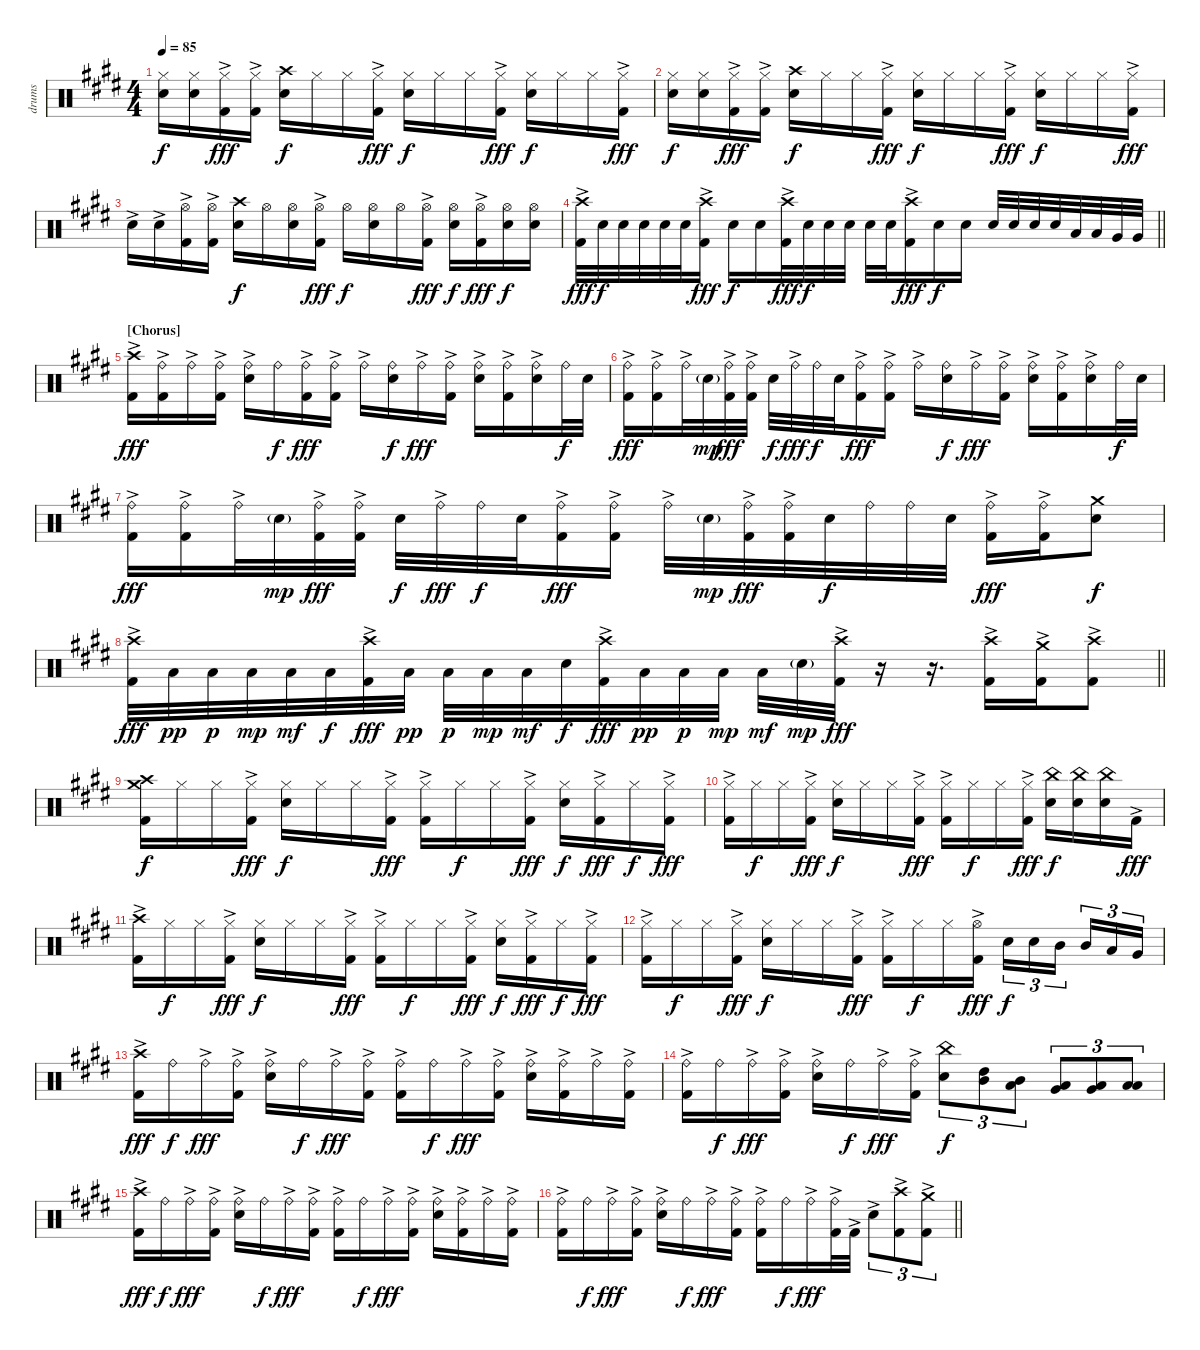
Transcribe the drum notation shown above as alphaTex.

\track ("drums" "drums") {instrument percussion}
\staff {score}
\articulation defaults
\ts (4 4)
\tempo 85
\clef neutral
\ks e
("Hi-Hat (closed)" "Snare (hit) 2").16{dy f} ("Hi-Hat (closed)" "Snare (hit) 2").16 ("Hi-Hat (closed)" "Kick (hit) 2"{ac}).16{dy fff} ("Hi-Hat (closed)" "Kick (hit) 2"{ac}).16 ("Crash high (hit)" "Snare (hit) 2").16{dy f} "Hi-Hat (closed)".16 "Hi-Hat (closed)".16 ("Hi-Hat (closed)" "Kick (hit) 2"{ac}).16{dy fff} ("Hi-Hat (closed)" "Snare (hit) 2").16{dy f} "Hi-Hat (closed)".16 "Hi-Hat (closed)".16 ("Hi-Hat (closed)" "Kick (hit) 2"{ac}).16{dy fff} ("Hi-Hat (closed)" "Snare (hit) 2").16{dy f} "Hi-Hat (closed)".16 "Hi-Hat (closed)".16 ("Hi-Hat (closed)" "Kick (hit) 2"{ac}).16{dy fff} |
("Hi-Hat (closed)" "Snare (hit) 2").16{dy f} ("Hi-Hat (closed)" "Snare (hit) 2").16 ("Hi-Hat (closed)" "Kick (hit) 2"{ac}).16{dy fff} ("Hi-Hat (closed)" "Kick (hit) 2"{ac}).16 ("Crash high (hit)" "Snare (hit) 2").16{dy f} "Hi-Hat (closed)".16 "Hi-Hat (closed)".16 ("Hi-Hat (closed)" "Kick (hit) 2"{ac}).16{dy fff} ("Hi-Hat (closed)" "Snare (hit) 2").16{dy f} "Hi-Hat (closed)".16 "Hi-Hat (closed)".16 ("Hi-Hat (closed)" "Kick (hit) 2"{ac}).16{dy fff} ("Hi-Hat (closed)" "Snare (hit) 2").16{dy f} "Hi-Hat (closed)".16 "Hi-Hat (closed)".16 ("Hi-Hat (closed)" "Kick (hit) 2"{ac}).16{dy fff} |
"Snare (hit) 2"{ac}.16 "Snare (hit) 2"{ac}.16 ("Hi-Hat (open)" "Kick (hit) 2"{ac}).16 ("Hi-Hat (open)" "Kick (hit) 2"{ac}).16 ("Crash high (hit)" "Snare (hit) 2").16{dy f} "Hi-Hat (open)".16 ("Hi-Hat (open)" "Snare (hit) 2").16 ("Hi-Hat (open)" "Kick (hit) 2"{ac}).16{dy fff} "Hi-Hat (open)".16{dy f} ("Hi-Hat (open)" "Snare (hit) 2").16 "Hi-Hat (open)".16 ("Hi-Hat (open)" "Kick (hit) 2"{ac}).16{dy fff} ("Hi-Hat (open)" "Snare (hit) 2").16{dy f} ("Hi-Hat (open)" "Kick (hit) 2"{ac}).16{dy fff} ("Hi-Hat (open)" "Snare (hit) 2").16{dy f} ("Hi-Hat (open)" "Snare (hit) 2").16 |
\barLineRight lightlight
("Crash high (hit)" "Kick (hit) 2"{ac}).32{dy fff} "Snare (hit) 2".32{dy f} "Snare (hit) 2".32 "Snare (hit) 2".32 "Snare (hit) 2".32 "Snare (hit) 2".32 ("Crash high (hit)" "Kick (hit) 2"{ac}).16{dy fff} "Snare (hit) 2".16{dy f} "Snare (hit) 2".16 ("Crash high (hit)" "Kick (hit) 2"{ac}).32{dy fff} "Snare (hit) 2".32{dy f} "Snare (hit) 2".32 "Snare (hit) 2".32 "Snare (hit) 2".32 "Snare (hit) 2".32 ("Crash high (hit)" "Kick (hit) 2"{ac}).16{dy fff} "Snare (hit) 2".16{dy f} "Snare (hit) 2".16 "Snare (hit) 2".32 "Snare (hit) 2".32 "Snare (hit) 2".32 "Snare (hit) 2".32 "Low Tom (hit)".32 "Low Tom (hit)".32 "Very Low Tom (hit)".32 "Very Low Tom (hit)".32 |
\section ("" "[Chorus]")
("Crash high (hit)" "Kick (hit) 2"{ac}).16{dy fff} ("Ride (bell)" "Kick (hit) 2"{ac}).16 "Ride (bell)"{ac}.16 ("Ride (bell)" "Kick (hit) 2"{ac}).16 ("Ride (bell)"{ac} "Snare (hit) 2").16 "Ride (bell)".16{dy f} ("Ride (bell)"{ac} "Kick (hit) 2"{ac}).16{dy fff} ("Ride (bell)" "Kick (hit) 2"{ac}).16 "Ride (bell)"{ac}.16 ("Ride (bell)" "Snare (hit) 2").16{dy f} "Ride (bell)"{ac}.16{dy fff} ("Ride (bell)" "Kick (hit) 2"{ac}).16 ("Ride (bell)"{ac} "Snare (hit) 2").16 ("Ride (bell)" "Kick (hit) 2"{ac}).16 ("Ride (bell)"{ac} "Snare (hit) 2").16 "Ride (bell)".32{dy f} "Snare (hit) 2".32 |
("Ride (bell)"{ac} "Kick (hit) 2"{ac}).16{dy fff} ("Ride (bell)" "Kick (hit) 2"{ac}).16 "Ride (bell)"{ac}.32 "Snare (hit) 2"{g}.32{dy mp} ("Ride (bell)" "Kick (hit) 2"{ac}).32{dy fff} ("Ride (bell)" "Kick (hit) 2"{ac}).32 "Snare (hit) 2".32{dy f} "Ride (bell)"{ac}.32{dy fff} "Ride (bell)".32{dy f} "Snare (hit) 2".32 ("Ride (bell)"{ac} "Kick (hit) 2"{ac}).16{dy fff} ("Ride (bell)" "Kick (hit) 2"{ac}).16 "Ride (bell)"{ac}.16 ("Ride (bell)" "Snare (hit) 2").16{dy f} "Ride (bell)"{ac}.16{dy fff} ("Ride (bell)" "Kick (hit) 2"{ac}).16 ("Ride (bell)"{ac} "Snare (hit) 2").16 ("Ride (bell)" "Kick (hit) 2"{ac}).16 ("Ride (bell)"{ac} "Snare (hit) 2").16 "Ride (bell)".32{dy f} "Snare (hit) 2".32 |
("Ride (bell)"{ac} "Kick (hit) 2"{ac}).16{dy fff} ("Ride (bell)" "Kick (hit) 2"{ac}).16 "Ride (bell)"{ac}.32 "Snare (hit) 2"{g}.32{dy mp} ("Ride (bell)" "Kick (hit) 2"{ac}).32{dy fff} ("Ride (bell)" "Kick (hit) 2"{ac}).32 "Snare (hit) 2".32{dy f} "Ride (bell)"{ac}.32{dy fff} "Ride (bell)".32{dy f} "Snare (hit) 2".32 ("Ride (bell)"{ac} "Kick (hit) 2"{ac}).16{dy fff} ("Ride (bell)" "Kick (hit) 2"{ac}).16 "Ride (bell)"{ac}.32 "Snare (hit) 2"{g}.32{dy mp} ("Ride (bell)" "Kick (hit) 2"{ac}).32{dy fff} ("Ride (bell)"{ac} "Kick (hit) 2"{ac}).32 "Snare (hit) 2".32{dy f} "Ride (bell)".32 "Ride (bell)".32 "Snare (hit) 2".32 ("Ride (bell)"{ac} "Kick (hit) 2"{ac}).16{dy fff} ("Ride (bell)" "Kick (hit) 2"{ac}).16 ("Crash medium (hit)" "Snare (hit) 2").8{dy f} |
\barLineRight lightlight
("Crash high (hit)" "Kick (hit) 2"{ac}).32{dy fff} "Low Floor Tom (hit)".32{dy pp} "Low Floor Tom (hit)".32{dy p} "Low Floor Tom (hit)".32{dy mp} "Low Floor Tom (hit)".32{dy mf} "Low Floor Tom (hit)".32{dy f} ("Crash high (hit)" "Kick (hit) 2"{ac}).32{dy fff} "Low Floor Tom (hit)".32{dy pp} "Low Floor Tom (hit)".32{dy p} "Low Floor Tom (hit)".32{dy mp} "Low Floor Tom (hit)".32{dy mf} "Snare (hit) 2".32{dy f} ("Crash high (hit)" "Kick (hit) 2"{ac}).32{dy fff} "Low Floor Tom (hit)".32{dy pp} "Low Floor Tom (hit)".32{dy p} "Low Floor Tom (hit)".32{dy mp} "Low Floor Tom (hit)".32{dy mf} "Snare (hit) 2"{g}.32{dy mp} ("Crash high (hit)" "Kick (hit) 2"{ac}).32{dy fff} r.16 r.16{d} ("Crash high (hit)" "Kick (hit) 2"{ac}).16 ("Crash medium (hit)" "Kick (hit) 2"{ac}).16 ("Crash high (hit)" "Kick (hit) 2"{ac}).8 |
("Crash high (hit)" "Crash medium (hit)" "Kick (hit) 2").16{dy f} "Hi-Hat (closed)".16 "Hi-Hat (closed)".16 ("Hi-Hat (closed)" "Kick (hit) 2"{ac}).16{dy fff} ("Hi-Hat (closed)" "Snare (hit) 2").16{dy f} "Hi-Hat (closed)".16 "Hi-Hat (closed)".16 ("Hi-Hat (closed)" "Kick (hit) 2"{ac}).16{dy fff} ("Hi-Hat (closed)" "Kick (hit) 2"{ac}).16 "Hi-Hat (closed)".16{dy f} "Hi-Hat (closed)".16 ("Hi-Hat (closed)" "Kick (hit) 2"{ac}).16{dy fff} ("Hi-Hat (closed)" "Snare (hit) 2").16{dy f} ("Hi-Hat (closed)" "Kick (hit) 2"{ac}).16{dy fff} "Hi-Hat (closed)".16{dy f} ("Hi-Hat (closed)" "Kick (hit) 2"{ac}).16{dy fff} |
("Hi-Hat (closed)" "Kick (hit) 2"{ac}).16 "Hi-Hat (closed)".16{dy f} "Hi-Hat (closed)".16 ("Hi-Hat (closed)" "Kick (hit) 2"{ac}).16{dy fff} ("Hi-Hat (closed)" "Snare (hit) 2").16{dy f} "Hi-Hat (closed)".16 "Hi-Hat (closed)".16 ("Hi-Hat (closed)" "Kick (hit) 2"{ac}).16{dy fff} ("Hi-Hat (closed)" "Kick (hit) 2"{ac}).16 "Hi-Hat (closed)".16{dy f} "Hi-Hat (closed)".16 ("Hi-Hat (closed)" "Kick (hit) 2"{ac}).16{dy fff} ("China (hit)" "Snare (hit) 2").16{dy f} ("China (hit)" "Snare (hit) 2").16 ("China (hit)" "Snare (hit) 2").16 "Kick (hit) 2"{ac}.16{dy fff} |
("Crash high (hit)" "Kick (hit) 2"{ac}).16 "Hi-Hat (closed)".16{dy f} "Hi-Hat (closed)".16 ("Hi-Hat (closed)" "Kick (hit) 2"{ac}).16{dy fff} ("Hi-Hat (closed)" "Snare (hit) 2").16{dy f} "Hi-Hat (closed)".16 "Hi-Hat (closed)".16 ("Hi-Hat (closed)" "Kick (hit) 2"{ac}).16{dy fff} ("Hi-Hat (closed)" "Kick (hit) 2"{ac}).16 "Hi-Hat (closed)".16{dy f} "Hi-Hat (closed)".16 ("Hi-Hat (closed)" "Kick (hit) 2"{ac}).16{dy fff} ("Hi-Hat (closed)" "Snare (hit) 2").16{dy f} ("Hi-Hat (closed)" "Kick (hit) 2"{ac}).16{dy fff} "Hi-Hat (closed)".16{dy f} ("Hi-Hat (closed)" "Kick (hit) 2"{ac}).16{dy fff} |
("Hi-Hat (closed)" "Kick (hit) 2"{ac}).16 "Hi-Hat (closed)".16{dy f} "Hi-Hat (closed)".16 ("Hi-Hat (closed)" "Kick (hit) 2"{ac}).16{dy fff} ("Hi-Hat (closed)" "Snare (hit) 2").16{dy f} "Hi-Hat (closed)".16 "Hi-Hat (closed)".16 ("Hi-Hat (closed)" "Kick (hit) 2"{ac}).16{dy fff} ("Hi-Hat (closed)" "Kick (hit) 2"{ac}).16 "Hi-Hat (closed)".16{dy f} "Hi-Hat (closed)".16 ("Hi-Hat (open)" "Kick (hit) 2"{ac}).16{dy fff} "Snare (hit) 2".16{tu (3 2) dy f} "Snare (hit) 2".16{tu (3 2)} "Mid Tom (hit)".16{tu (3 2) beam splitsecondary} "Mid Tom (hit)".16{tu (3 2)} "Low Tom (hit)".16{tu (3 2)} "Very Low Tom (hit)".16{tu (3 2)} |
("Crash high (hit)" "Kick (hit) 2"{ac}).16{dy fff} "Ride (bell)".16{dy f} "Ride (bell)"{ac}.16{dy fff} ("Ride (bell)" "Kick (hit) 2"{ac}).16 ("Ride (bell)"{ac} "Snare (hit) 2").16 "Ride (bell)".16{dy f} "Ride (bell)"{ac}.16{dy fff} ("Ride (bell)" "Kick (hit) 2"{ac}).16 ("Ride (bell)"{ac} "Kick (hit) 2"{ac}).16 "Ride (bell)".16{dy f} "Ride (bell)"{ac}.16{dy fff} ("Ride (bell)" "Kick (hit) 2"{ac}).16 ("Ride (bell)"{ac} "Snare (hit) 2").16 ("Ride (bell)" "Kick (hit) 2"{ac}).16 "Ride (bell)"{ac}.16 ("Ride (bell)" "Kick (hit) 2"{ac}).16 |
("Ride (bell)"{ac} "Kick (hit) 2"{ac}).16 "Ride (bell)".16{dy f} "Ride (bell)"{ac}.16{dy fff} ("Ride (bell)" "Kick (hit) 2"{ac}).16 ("Ride (bell)"{ac} "Snare (hit) 2").16 "Ride (bell)".16{dy f} "Ride (bell)"{ac}.16{dy fff} ("Ride (bell)" "Kick (hit) 2"{ac}).16 ("China (hit)" "Snare (hit) 2").8{tu (3 2) dy f} ("Mid Tom (hit)" "High Tom (hit)").8{tu (3 2)} ("Mid Tom (hit)" "Low Tom (hit)").8{tu (3 2)} ("Low Tom (hit)" "Very Low Tom (hit)").8{tu (3 2)} ("Very Low Tom (hit)" "Low Floor Tom (hit)").8{tu (3 2)} ("Low Floor Tom (hit)" "Low Floor Tom (hit)").8{tu (3 2)} |
("Crash high (hit)" "Kick (hit) 2"{ac}).16{dy fff} "Ride (bell)".16{dy f} "Ride (bell)"{ac}.16{dy fff} ("Ride (bell)" "Kick (hit) 2"{ac}).16 ("Ride (bell)"{ac} "Snare (hit) 2").16 "Ride (bell)".16{dy f} "Ride (bell)"{ac}.16{dy fff} ("Ride (bell)" "Kick (hit) 2"{ac}).16 ("Ride (bell)"{ac} "Kick (hit) 2"{ac}).16 "Ride (bell)".16{dy f} "Ride (bell)"{ac}.16{dy fff} ("Ride (bell)" "Kick (hit) 2"{ac}).16 ("Ride (bell)"{ac} "Snare (hit) 2").16 ("Ride (bell)" "Kick (hit) 2"{ac}).16 "Ride (bell)"{ac}.16 ("Ride (bell)" "Kick (hit) 2"{ac}).16 |
\barLineRight lightlight
("Ride (bell)"{ac} "Kick (hit) 2"{ac}).16 "Ride (bell)".16{dy f} "Ride (bell)"{ac}.16{dy fff} ("Ride (bell)" "Kick (hit) 2"{ac}).16 ("Ride (bell)"{ac} "Snare (hit) 2").16 "Ride (bell)".16{dy f} "Ride (bell)"{ac}.16{dy fff} ("Ride (bell)" "Kick (hit) 2"{ac}).16 ("Ride (bell)"{ac} "Kick (hit) 2"{ac}).16 "Ride (bell)".16{dy f} "Ride (bell)"{ac}.16{dy fff} ("Ride (bell)" "Kick (hit) 2"{ac}).32 "Kick (hit) 2"{ac}.32 "Snare (hit) 2"{ac}.8{tu (3 2)} ("Crash high (hit)" "Kick (hit) 2"{ac}).8{tu (3 2)} ("Crash medium (hit)" "Kick (hit) 2"{ac}).8{tu (3 2)}
